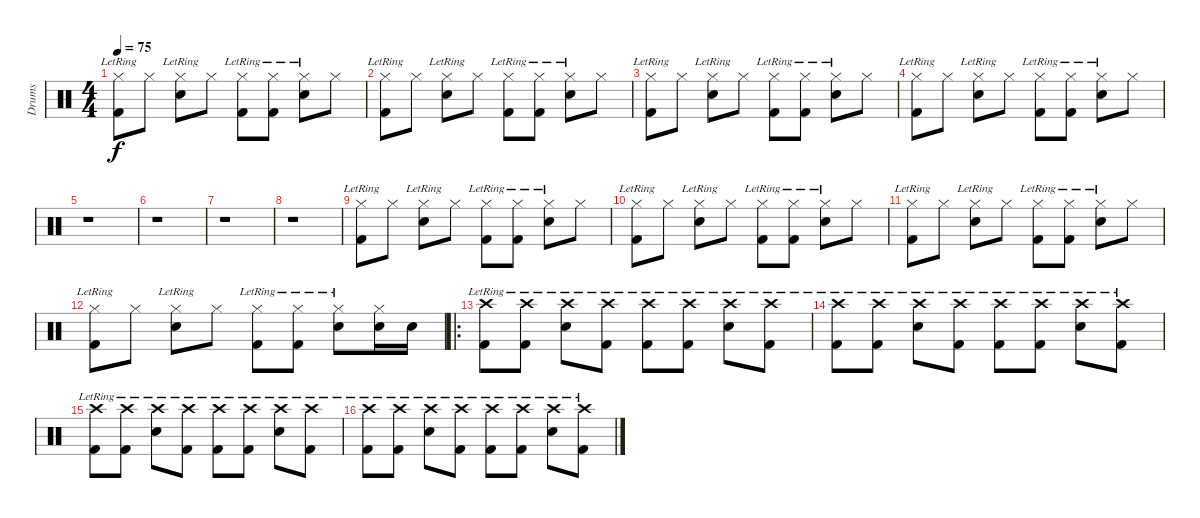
\track ("Drums" "Drums") {instrument percussion}
\staff {score}
\articulation defaults
\ts (4 4)
\tempo 75
\clef neutral
\ks c
("Hi-Hat (closed)" "Kick (hit) 2"{lr}).8{dy f} "Hi-Hat (closed)".8 ("Hi-Hat (closed)" "Electric Snare (hit)"{lr}).8 "Hi-Hat (closed)".8 ("Hi-Hat (closed)" "Kick (hit) 2"{lr}).8 ("Hi-Hat (closed)" "Kick (hit) 2"{lr}).8 ("Hi-Hat (closed)" "Electric Snare (hit)"{lr}).8 "Hi-Hat (closed)".8 |
("Hi-Hat (closed)" "Kick (hit) 2"{lr}).8 "Hi-Hat (closed)".8 ("Hi-Hat (closed)" "Electric Snare (hit)"{lr}).8 "Hi-Hat (closed)".8 ("Hi-Hat (closed)" "Kick (hit) 2"{lr}).8 ("Hi-Hat (closed)" "Kick (hit) 2"{lr}).8 ("Hi-Hat (closed)" "Electric Snare (hit)"{lr}).8 "Hi-Hat (closed)".8 |
("Hi-Hat (closed)" "Kick (hit) 2"{lr}).8 "Hi-Hat (closed)".8 ("Hi-Hat (closed)" "Electric Snare (hit)"{lr}).8 "Hi-Hat (closed)".8 ("Hi-Hat (closed)" "Kick (hit) 2"{lr}).8 ("Hi-Hat (closed)" "Kick (hit) 2"{lr}).8 ("Hi-Hat (closed)" "Electric Snare (hit)"{lr}).8 "Hi-Hat (closed)".8 |
("Hi-Hat (closed)" "Kick (hit) 2"{lr}).8 "Hi-Hat (closed)".8 ("Hi-Hat (closed)" "Electric Snare (hit)"{lr}).8 "Hi-Hat (closed)".8 ("Hi-Hat (closed)" "Kick (hit) 2"{lr}).8 ("Hi-Hat (closed)" "Kick (hit) 2"{lr}).8 ("Hi-Hat (closed)" "Electric Snare (hit)"{lr}).8 "Hi-Hat (closed)".8 |
r.1 |
r.1 |
r.1 |
r.1 |
("Hi-Hat (closed)" "Kick (hit) 2"{lr}).8 "Hi-Hat (closed)".8 ("Hi-Hat (closed)" "Electric Snare (hit)"{lr}).8 "Hi-Hat (closed)".8 ("Hi-Hat (closed)" "Kick (hit) 2"{lr}).8 ("Hi-Hat (closed)" "Kick (hit) 2"{lr}).8 ("Hi-Hat (closed)" "Electric Snare (hit)"{lr}).8 "Hi-Hat (closed)".8 |
("Hi-Hat (closed)" "Kick (hit) 2"{lr}).8 "Hi-Hat (closed)".8 ("Hi-Hat (closed)" "Electric Snare (hit)"{lr}).8 "Hi-Hat (closed)".8 ("Hi-Hat (closed)" "Kick (hit) 2"{lr}).8 ("Hi-Hat (closed)" "Kick (hit) 2"{lr}).8 ("Hi-Hat (closed)" "Electric Snare (hit)"{lr}).8 "Hi-Hat (closed)".8 |
("Hi-Hat (closed)" "Kick (hit) 2"{lr}).8 "Hi-Hat (closed)".8 ("Hi-Hat (closed)" "Electric Snare (hit)"{lr}).8 "Hi-Hat (closed)".8 ("Hi-Hat (closed)" "Kick (hit) 2"{lr}).8 ("Hi-Hat (closed)" "Kick (hit) 2"{lr}).8 ("Hi-Hat (closed)" "Electric Snare (hit)"{lr}).8 "Hi-Hat (closed)".8 |
("Hi-Hat (closed)" "Kick (hit) 2"{lr}).8 "Hi-Hat (closed)".8 ("Hi-Hat (closed)" "Electric Snare (hit)"{lr}).8 "Hi-Hat (closed)".8 ("Hi-Hat (closed)" "Kick (hit) 2"{lr}).8 ("Hi-Hat (closed)" "Kick (hit) 2"{lr}).8 ("Hi-Hat (closed)" "Electric Snare (hit)"{lr}).8 ("Hi-Hat (closed)" "Electric Snare (hit)").16 "Electric Snare (hit)".16 |
\ro
("Crash high (hit)"{lr} "Kick (hit) 2"{lr}).8 ("Crash high (hit)"{lr} "Kick (hit) 2"{lr}).8 ("Crash high (hit)"{lr} "Electric Snare (hit)"{lr}).8 ("Crash high (hit)"{lr} "Kick (hit) 2"{lr}).8 ("Crash high (hit)"{lr} "Kick (hit) 2"{lr}).8 ("Crash high (hit)"{lr} "Kick (hit) 2"{lr}).8 ("Crash high (hit)"{lr} "Electric Snare (hit)"{lr}).8 ("Crash high (hit)"{lr} "Kick (hit) 2"{lr}).8 |
("Crash high (hit)"{lr} "Kick (hit) 2"{lr}).8 ("Crash high (hit)"{lr} "Kick (hit) 2"{lr}).8 ("Crash high (hit)"{lr} "Electric Snare (hit)"{lr}).8 ("Crash high (hit)"{lr} "Kick (hit) 2"{lr}).8 ("Crash high (hit)"{lr} "Kick (hit) 2"{lr}).8 ("Crash high (hit)"{lr} "Kick (hit) 2"{lr}).8 ("Crash high (hit)"{lr} "Electric Snare (hit)"{lr}).8 ("Crash high (hit)"{lr} "Kick (hit) 2"{lr}).8 |
("Crash high (hit)"{lr} "Kick (hit) 2"{lr}).8 ("Crash high (hit)"{lr} "Kick (hit) 2"{lr}).8 ("Crash high (hit)"{lr} "Electric Snare (hit)"{lr}).8 ("Crash high (hit)"{lr} "Kick (hit) 2"{lr}).8 ("Crash high (hit)"{lr} "Kick (hit) 2"{lr}).8 ("Crash high (hit)"{lr} "Kick (hit) 2"{lr}).8 ("Crash high (hit)"{lr} "Electric Snare (hit)"{lr}).8 ("Crash high (hit)"{lr} "Kick (hit) 2"{lr}).8 |
("Crash high (hit)"{lr} "Kick (hit) 2"{lr}).8 ("Crash high (hit)"{lr} "Kick (hit) 2"{lr}).8 ("Crash high (hit)"{lr} "Electric Snare (hit)"{lr}).8 ("Crash high (hit)"{lr} "Kick (hit) 2"{lr}).8 ("Crash high (hit)"{lr} "Kick (hit) 2"{lr}).8 ("Crash high (hit)"{lr} "Kick (hit) 2"{lr}).8 ("Crash high (hit)"{lr} "Electric Snare (hit)"{lr}).8 ("Crash high (hit)"{lr} "Kick (hit) 2"{lr}).8
